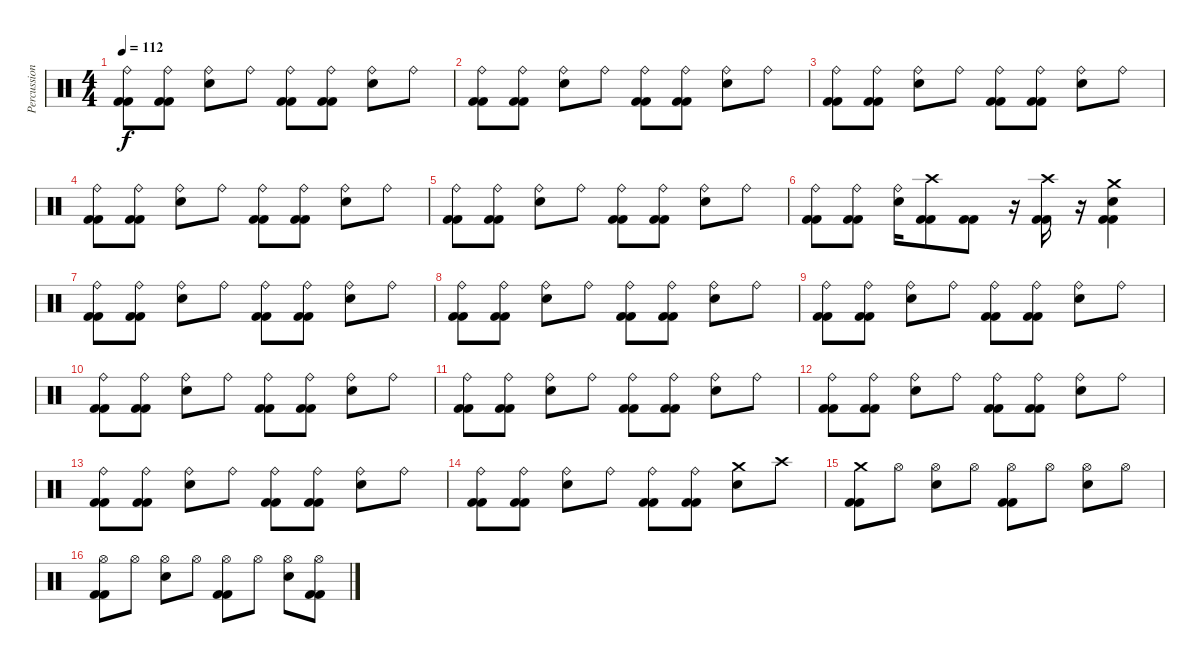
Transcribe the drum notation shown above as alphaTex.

\track ("Percussion" "Percussion") {instrument percussion}
\staff {score}
\articulation defaults
\ts (4 4)
\tempo 112
\clef neutral
\ks c
("Kick (hit) 2" "Kick (hit) 2" "Ride (bell)").8{dy f} ("Kick (hit) 2" "Kick (hit) 2" "Ride (bell)").8 ("Electric Snare (hit)" "Ride (bell)").8 "Ride (bell)".8 ("Kick (hit) 2" "Kick (hit) 2" "Ride (bell)").8 ("Kick (hit) 2" "Kick (hit) 2" "Ride (bell)").8 ("Electric Snare (hit)" "Ride (bell)").8 "Ride (bell)".8 |
("Kick (hit) 2" "Kick (hit) 2" "Ride (bell)").8 ("Kick (hit) 2" "Kick (hit) 2" "Ride (bell)").8 ("Electric Snare (hit)" "Ride (bell)").8 "Ride (bell)".8 ("Kick (hit) 2" "Kick (hit) 2" "Ride (bell)").8 ("Kick (hit) 2" "Kick (hit) 2" "Ride (bell)").8 ("Electric Snare (hit)" "Ride (bell)").8 "Ride (bell)".8 |
("Kick (hit) 2" "Kick (hit) 2" "Ride (bell)").8 ("Kick (hit) 2" "Kick (hit) 2" "Ride (bell)").8 ("Electric Snare (hit)" "Ride (bell)").8 "Ride (bell)".8 ("Kick (hit) 2" "Kick (hit) 2" "Ride (bell)").8 ("Kick (hit) 2" "Kick (hit) 2" "Ride (bell)").8 ("Electric Snare (hit)" "Ride (bell)").8 "Ride (bell)".8 |
("Kick (hit) 2" "Kick (hit) 2" "Ride (bell)").8 ("Kick (hit) 2" "Kick (hit) 2" "Ride (bell)").8 ("Electric Snare (hit)" "Ride (bell)").8 "Ride (bell)".8 ("Kick (hit) 2" "Kick (hit) 2" "Ride (bell)").8 ("Kick (hit) 2" "Kick (hit) 2" "Ride (bell)").8 ("Electric Snare (hit)" "Ride (bell)").8 "Ride (bell)".8 |
("Kick (hit) 2" "Kick (hit) 2" "Ride (bell)").8 ("Kick (hit) 2" "Kick (hit) 2" "Ride (bell)").8 ("Electric Snare (hit)" "Ride (bell)").8 "Ride (bell)".8 ("Kick (hit) 2" "Kick (hit) 2" "Ride (bell)").8 ("Kick (hit) 2" "Kick (hit) 2" "Ride (bell)").8 ("Electric Snare (hit)" "Ride (bell)").8 "Ride (bell)".8 |
("Kick (hit) 2" "Kick (hit) 2" "Ride (bell)").8 ("Kick (hit) 2" "Kick (hit) 2" "Ride (bell)").8 ("Electric Snare (hit)" "Ride (bell)").16 ("Crash high (hit)" "Kick (hit) 2" "Kick (hit) 2").8 ("Kick (hit) 2" "Kick (hit) 2").8 r.16 ("Kick (hit) 2" "Kick (hit) 2" "Crash high (hit)").16 r.16 ("Kick (hit) 2" "Kick (hit) 2" "Crash medium (hit)" "Electric Snare (hit)").4 |
("Kick (hit) 2" "Kick (hit) 2" "Ride (bell)").8 ("Kick (hit) 2" "Kick (hit) 2" "Ride (bell)").8 ("Electric Snare (hit)" "Ride (bell)").8 "Ride (bell)".8 ("Kick (hit) 2" "Kick (hit) 2" "Ride (bell)").8 ("Kick (hit) 2" "Kick (hit) 2" "Ride (bell)").8 ("Electric Snare (hit)" "Ride (bell)").8 "Ride (bell)".8 |
("Kick (hit) 2" "Kick (hit) 2" "Ride (bell)").8 ("Kick (hit) 2" "Kick (hit) 2" "Ride (bell)").8 ("Electric Snare (hit)" "Ride (bell)").8 "Ride (bell)".8 ("Kick (hit) 2" "Kick (hit) 2" "Ride (bell)").8 ("Kick (hit) 2" "Kick (hit) 2" "Ride (bell)").8 ("Electric Snare (hit)" "Ride (bell)").8 "Ride (bell)".8 |
("Kick (hit) 2" "Kick (hit) 2" "Ride (bell)").8 ("Kick (hit) 2" "Kick (hit) 2" "Ride (bell)").8 ("Electric Snare (hit)" "Ride (bell)").8 "Ride (bell)".8 ("Kick (hit) 2" "Kick (hit) 2" "Ride (bell)").8 ("Kick (hit) 2" "Kick (hit) 2" "Ride (bell)").8 ("Electric Snare (hit)" "Ride (bell)").8 "Ride (bell)".8 |
("Kick (hit) 2" "Kick (hit) 2" "Ride (bell)").8 ("Kick (hit) 2" "Kick (hit) 2" "Ride (bell)").8 ("Electric Snare (hit)" "Ride (bell)").8 "Ride (bell)".8 ("Kick (hit) 2" "Kick (hit) 2" "Ride (bell)").8 ("Kick (hit) 2" "Kick (hit) 2" "Ride (bell)").8 ("Electric Snare (hit)" "Ride (bell)").8 "Ride (bell)".8 |
("Kick (hit) 2" "Kick (hit) 2" "Ride (bell)").8 ("Kick (hit) 2" "Kick (hit) 2" "Ride (bell)").8 ("Electric Snare (hit)" "Ride (bell)").8 "Ride (bell)".8 ("Kick (hit) 2" "Kick (hit) 2" "Ride (bell)").8 ("Kick (hit) 2" "Kick (hit) 2" "Ride (bell)").8 ("Electric Snare (hit)" "Ride (bell)").8 "Ride (bell)".8 |
("Kick (hit) 2" "Kick (hit) 2" "Ride (bell)").8 ("Kick (hit) 2" "Kick (hit) 2" "Ride (bell)").8 ("Electric Snare (hit)" "Ride (bell)").8 "Ride (bell)".8 ("Kick (hit) 2" "Kick (hit) 2" "Ride (bell)").8 ("Kick (hit) 2" "Kick (hit) 2" "Ride (bell)").8 ("Electric Snare (hit)" "Ride (bell)").8 "Ride (bell)".8 |
("Kick (hit) 2" "Kick (hit) 2" "Ride (bell)").8 ("Kick (hit) 2" "Kick (hit) 2" "Ride (bell)").8 ("Electric Snare (hit)" "Ride (bell)").8 "Ride (bell)".8 ("Kick (hit) 2" "Kick (hit) 2" "Ride (bell)").8 ("Kick (hit) 2" "Kick (hit) 2" "Ride (bell)").8 ("Electric Snare (hit)" "Ride (bell)").8 "Ride (bell)".8 |
("Kick (hit) 2" "Kick (hit) 2" "Ride (bell)").8 ("Kick (hit) 2" "Kick (hit) 2" "Ride (bell)").8 ("Electric Snare (hit)" "Ride (bell)").8 "Ride (bell)".8 ("Kick (hit) 2" "Kick (hit) 2" "Ride (bell)").8 ("Kick (hit) 2" "Kick (hit) 2" "Ride (bell)").8 ("Electric Snare (hit)" "Crash medium (hit)").8 "Crash high (hit)".8 |
("Kick (hit) 2" "Kick (hit) 2" "Crash medium (hit)").8 "Hi-Hat (open)".8 ("Electric Snare (hit)" "Hi-Hat (open)").8 "Hi-Hat (open)".8 ("Kick (hit) 2" "Kick (hit) 2" "Hi-Hat (open)").8 "Hi-Hat (open)".8 ("Electric Snare (hit)" "Hi-Hat (open)").8 "Hi-Hat (open)".8 |
("Kick (hit) 2" "Kick (hit) 2" "Hi-Hat (open)").8 "Hi-Hat (open)".8 ("Electric Snare (hit)" "Hi-Hat (open)").8 "Hi-Hat (open)".8 ("Kick (hit) 2" "Kick (hit) 2" "Hi-Hat (open)").8 "Hi-Hat (open)".8 ("Electric Snare (hit)" "Hi-Hat (open)").8 ("Kick (hit) 2" "Kick (hit) 2" "Hi-Hat (open)").8
